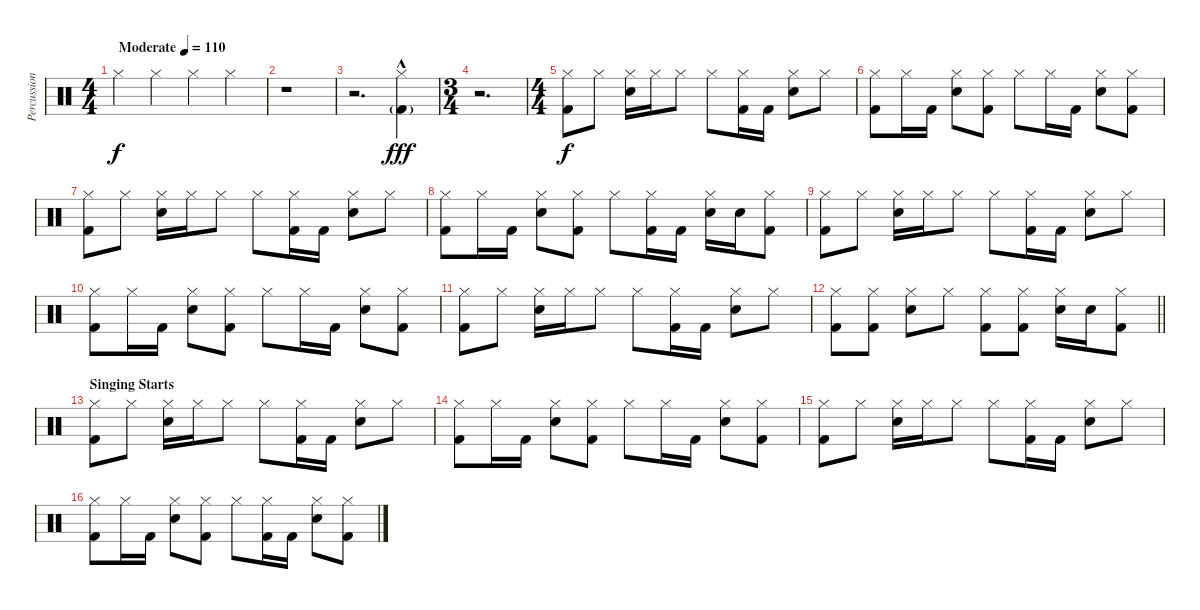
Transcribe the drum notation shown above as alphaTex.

\track ("Percussion" "Percussion") {instrument percussion}
\staff {score}
\articulation defaults
\ts (4 4)
\tempo (110 "Moderate")
\clef neutral
\ks c "Hi-Hat (closed)".4{dy f} "Hi-Hat (closed)".4 "Hi-Hat (closed)".4 "Hi-Hat (closed)".4
|
r.1 |
r.2{d} ("Kick (hit) 2"{g} "Hi-Hat (closed)"{hac}).4{dy fff} |
\ts (3 4)
r.2{d} |
\ts (4 4)
("Kick (hit) 2" "Hi-Hat (closed)").8{dy f} "Hi-Hat (closed)".8 ("Electric Snare (hit)" "Hi-Hat (closed)").16 "Hi-Hat (closed)".16 "Hi-Hat (closed)".8 "Hi-Hat (closed)".8 ("Kick (hit) 2" "Hi-Hat (closed)").16 "Kick (hit) 2".16 ("Electric Snare (hit)" "Hi-Hat (closed)").8 "Hi-Hat (closed)".8 |
("Kick (hit) 2" "Hi-Hat (closed)").8 "Hi-Hat (closed)".16 "Kick (hit) 2".16 ("Electric Snare (hit)" "Hi-Hat (closed)").8 ("Kick (hit) 2" "Hi-Hat (closed)").8 "Hi-Hat (closed)".8 "Hi-Hat (closed)".16 "Kick (hit) 2".16 ("Electric Snare (hit)" "Hi-Hat (closed)").8 ("Kick (hit) 2" "Hi-Hat (closed)").8 |
("Kick (hit) 2" "Hi-Hat (closed)").8 "Hi-Hat (closed)".8 ("Electric Snare (hit)" "Hi-Hat (closed)").16 "Hi-Hat (closed)".16 "Hi-Hat (closed)".8 "Hi-Hat (closed)".8 ("Kick (hit) 2" "Hi-Hat (closed)").16 "Kick (hit) 2".16 ("Electric Snare (hit)" "Hi-Hat (closed)").8 "Hi-Hat (closed)".8 |
("Kick (hit) 2" "Hi-Hat (closed)").8 "Hi-Hat (closed)".16 "Kick (hit) 2".16 ("Electric Snare (hit)" "Hi-Hat (closed)").8 ("Kick (hit) 2" "Hi-Hat (closed)").8 "Hi-Hat (closed)".8 ("Kick (hit) 2" "Hi-Hat (closed)").16 "Kick (hit) 2".16 ("Electric Snare (hit)" "Hi-Hat (closed)").16 "Electric Snare (hit)".16 ("Kick (hit) 2" "Hi-Hat (closed)").8 |
("Kick (hit) 2" "Hi-Hat (closed)").8 "Hi-Hat (closed)".8 ("Electric Snare (hit)" "Hi-Hat (closed)").16 "Hi-Hat (closed)".16 "Hi-Hat (closed)".8 "Hi-Hat (closed)".8 ("Kick (hit) 2" "Hi-Hat (closed)").16 "Kick (hit) 2".16 ("Electric Snare (hit)" "Hi-Hat (closed)").8 "Hi-Hat (closed)".8 |
("Kick (hit) 2" "Hi-Hat (closed)").8 "Hi-Hat (closed)".16 "Kick (hit) 2".16 ("Electric Snare (hit)" "Hi-Hat (closed)").8 ("Kick (hit) 2" "Hi-Hat (closed)").8 "Hi-Hat (closed)".8 "Hi-Hat (closed)".16 "Kick (hit) 2".16 ("Electric Snare (hit)" "Hi-Hat (closed)").8 ("Kick (hit) 2" "Hi-Hat (closed)").8 |
("Kick (hit) 2" "Hi-Hat (closed)").8 "Hi-Hat (closed)".8 ("Electric Snare (hit)" "Hi-Hat (closed)").16 "Hi-Hat (closed)".16 "Hi-Hat (closed)".8 "Hi-Hat (closed)".8 ("Kick (hit) 2" "Hi-Hat (closed)").16 "Kick (hit) 2".16 ("Electric Snare (hit)" "Hi-Hat (closed)").8 "Hi-Hat (closed)".8 |
\barLineRight lightlight
("Kick (hit) 2" "Hi-Hat (closed)").8 ("Kick (hit) 2" "Hi-Hat (closed)").8 ("Electric Snare (hit)" "Hi-Hat (closed)").8 "Hi-Hat (closed)".8 ("Kick (hit) 2" "Hi-Hat (closed)").8 ("Kick (hit) 2" "Hi-Hat (closed)").8 ("Electric Snare (hit)" "Hi-Hat (closed)").16 "Electric Snare (hit)".16 ("Kick (hit) 2" "Hi-Hat (closed)").8 |
\section ("" "Singing Starts")
("Kick (hit) 2" "Hi-Hat (closed)").8 "Hi-Hat (closed)".8 ("Electric Snare (hit)" "Hi-Hat (closed)").16 "Hi-Hat (closed)".16 "Hi-Hat (closed)".8 "Hi-Hat (closed)".8 ("Kick (hit) 2" "Hi-Hat (closed)").16 "Kick (hit) 2".16 ("Electric Snare (hit)" "Hi-Hat (closed)").8 "Hi-Hat (closed)".8 |
("Kick (hit) 2" "Hi-Hat (closed)").8 "Hi-Hat (closed)".16 "Kick (hit) 2".16 ("Electric Snare (hit)" "Hi-Hat (closed)").8 ("Kick (hit) 2" "Hi-Hat (closed)").8 "Hi-Hat (closed)".8 "Hi-Hat (closed)".16 "Kick (hit) 2".16 ("Electric Snare (hit)" "Hi-Hat (closed)").8 ("Kick (hit) 2" "Hi-Hat (closed)").8 |
("Kick (hit) 2" "Hi-Hat (closed)").8 "Hi-Hat (closed)".8 ("Electric Snare (hit)" "Hi-Hat (closed)").16 "Hi-Hat (closed)".16 "Hi-Hat (closed)".8 "Hi-Hat (closed)".8 ("Kick (hit) 2" "Hi-Hat (closed)").16 "Kick (hit) 2".16 ("Electric Snare (hit)" "Hi-Hat (closed)").8 "Hi-Hat (closed)".8 |
("Kick (hit) 2" "Hi-Hat (closed)").8 "Hi-Hat (closed)".16 "Kick (hit) 2".16 ("Electric Snare (hit)" "Hi-Hat (closed)").8 ("Kick (hit) 2" "Hi-Hat (closed)").8 "Hi-Hat (closed)".8 ("Kick (hit) 2" "Hi-Hat (closed)").16 "Kick (hit) 2".16 ("Electric Snare (hit)" "Hi-Hat (closed)").8 ("Kick (hit) 2" "Hi-Hat (closed)").8
